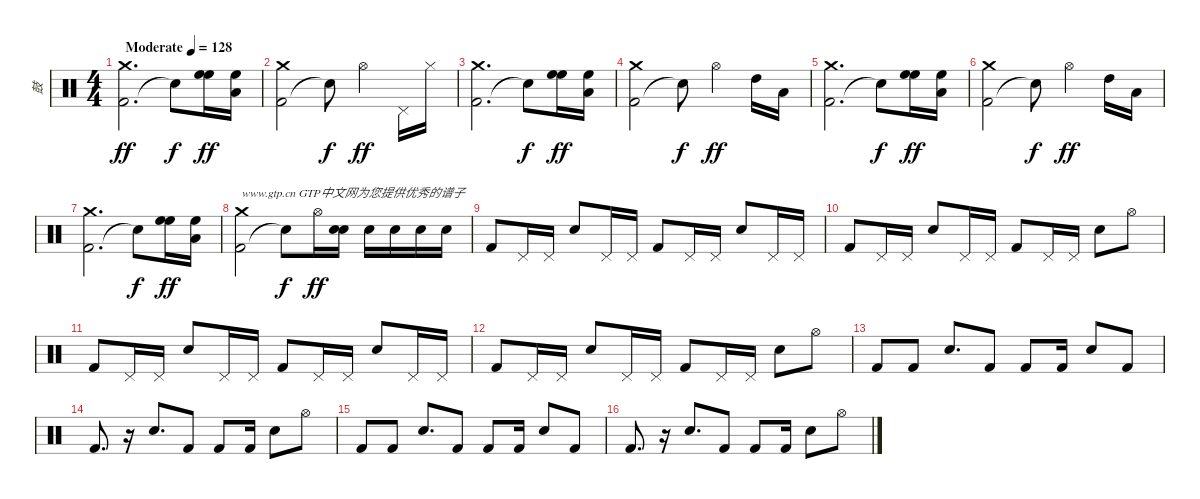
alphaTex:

\track ("鼓" "鼓") {instrument percussion}
\staff {score}
\articulation defaults
\ts (4 4)
\tempo (128 "Moderate")
\clef neutral
\ks c
("Kick (hit) 2" "Crash medium (hit)").2{d dy ff} "Snare (hit)"{t}.8{dy f} ("High Floor Tom (hit)" "High Floor Tom (hit)").16{dy ff} ("High Floor Tom (hit)" "Low Tom (hit)").16 |
("Kick (hit) 2" "Crash medium (hit)").2 "Snare (hit)"{t}.8{dy f} "Hi-Hat (open)".4{dy ff} "Pedal Hi-Hat (hit)".16 "Hi-Hat (closed)".16 |
("Kick (hit) 2" "Crash medium (hit)").2{d} "Snare (hit)"{t}.8{dy f} ("High Floor Tom (hit)" "High Floor Tom (hit)").16{dy ff} ("High Floor Tom (hit)" "Low Tom (hit)").16 |
("Kick (hit) 2" "Crash medium (hit)").2 "Snare (hit)"{t}.8{dy f} "Hi-Hat (open)".4{dy ff} "High Tom (hit)".16 "Low Tom (hit)".16 |
("Kick (hit) 2" "Crash medium (hit)").2{d} "Snare (hit)"{t}.8{dy f} ("High Floor Tom (hit)" "High Floor Tom (hit)").16{dy ff} ("High Floor Tom (hit)" "Low Tom (hit)").16 |
("Kick (hit) 2" "Crash medium (hit)").2 "Snare (hit)"{t}.8{dy f} "Hi-Hat (open)".4{dy ff} "High Tom (hit)".16 "Low Tom (hit)".16 |
("Kick (hit) 2" "Crash medium (hit)").2{d} "Snare (hit)"{t}.8{dy f} ("High Floor Tom (hit)" "High Floor Tom (hit)").16{dy ff} ("High Floor Tom (hit)" "Low Tom (hit)").16 |
("Kick (hit) 2" "Crash medium (hit)").2{txt "www.gtp.cn GTP中文网为您提供优秀的谱子"} "Snare (hit)"{t}.8{dy f} "Hi-Hat (open)".16{dy ff} ("Snare (hit) 2" "Snare (hit) 2").16 "Snare (hit) 2".16 "Snare (hit) 2".16 "Snare (hit) 2".16 "Snare (hit) 2".16 |
"Kick (hit) 2".8 "Pedal Hi-Hat (hit)".16 "Pedal Hi-Hat (hit)".16 "Snare (hit) 2".8 "Pedal Hi-Hat (hit)".16 "Pedal Hi-Hat (hit)".16 "Kick (hit) 2".8 "Pedal Hi-Hat (hit)".16 "Pedal Hi-Hat (hit)".16 "Snare (hit) 2".8 "Pedal Hi-Hat (hit)".16 "Pedal Hi-Hat (hit)".16 |
"Kick (hit) 2".8 "Pedal Hi-Hat (hit)".16 "Pedal Hi-Hat (hit)".16 "Snare (hit) 2".8 "Pedal Hi-Hat (hit)".16 "Pedal Hi-Hat (hit)".16 "Kick (hit) 2".8 "Pedal Hi-Hat (hit)".16 "Pedal Hi-Hat (hit)".16 "Snare (hit) 2".8 "Hi-Hat (open)".8 |
"Kick (hit) 2".8 "Pedal Hi-Hat (hit)".16 "Pedal Hi-Hat (hit)".16 "Snare (hit) 2".8 "Pedal Hi-Hat (hit)".16 "Pedal Hi-Hat (hit)".16 "Kick (hit) 2".8 "Pedal Hi-Hat (hit)".16 "Pedal Hi-Hat (hit)".16 "Snare (hit) 2".8 "Pedal Hi-Hat (hit)".16 "Pedal Hi-Hat (hit)".16 |
"Kick (hit) 2".8 "Pedal Hi-Hat (hit)".16 "Pedal Hi-Hat (hit)".16 "Snare (hit) 2".8 "Pedal Hi-Hat (hit)".16 "Pedal Hi-Hat (hit)".16 "Kick (hit) 2".8 "Pedal Hi-Hat (hit)".16 "Pedal Hi-Hat (hit)".16 "Snare (hit) 2".8 "Hi-Hat (open)".8 |
"Kick (hit) 2".8 "Kick (hit) 2".8 "Snare (hit) 2".8{d} "Kick (hit) 2".8 "Kick (hit) 2".8 "Kick (hit) 2".16 "Snare (hit) 2".8 "Kick (hit) 2".8 |
"Kick (hit) 2".8{d} r.16 "Snare (hit) 2".8{d} "Kick (hit) 2".8 "Kick (hit) 2".8 "Kick (hit) 2".16 "Snare (hit) 2".8 "Hi-Hat (open)".8 |
"Kick (hit) 2".8 "Kick (hit) 2".8 "Snare (hit) 2".8{d} "Kick (hit) 2".8 "Kick (hit) 2".8 "Kick (hit) 2".16 "Snare (hit) 2".8 "Kick (hit) 2".8 |
"Kick (hit) 2".8{d} r.16 "Snare (hit) 2".8{d} "Kick (hit) 2".8 "Kick (hit) 2".8 "Kick (hit) 2".16 "Snare (hit) 2".8 "Hi-Hat (open)".8
